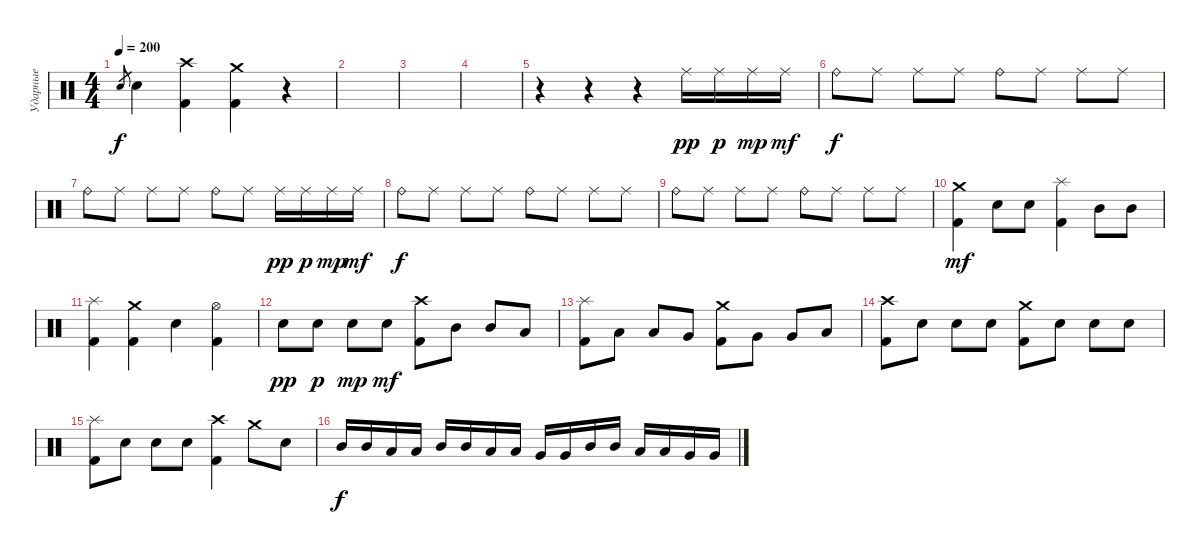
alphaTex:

\track ("Ударные" "Ударные") {instrument percussion}
\staff {score}
\articulation defaults
\ts (4 4)
\tempo 200
\clef neutral
\ks c "Electric Snare (hit)".8{gr dy f} "Electric Snare (hit)".4
("Crash high (hit)" "Kick (hit) 2").4 ("Crash medium (hit)" "Kick (hit) 2").4 r.4 |
|
|
|
r.4 r.4 r.4 "Ride (middle)".16{dy pp} "Ride (middle)".16{dy p} "Ride (middle)".16{dy mp} "Ride (middle)".16{dy mf} |
"Ride (bell)".8{dy f} "Ride (middle)".8 "Ride (middle)".8 "Ride (middle)".8 "Ride (bell)".8 "Ride (middle)".8 "Ride (middle)".8 "Ride (middle)".8 |
"Ride (bell)".8 "Ride (middle)".8 "Ride (middle)".8 "Ride (middle)".8 "Ride (bell)".8 "Ride (middle)".8 "Ride (middle)".16{dy pp} "Ride (middle)".16{dy p} "Ride (middle)".16{dy mp} "Ride (middle)".16{dy mf} |
"Ride (bell)".8{dy f} "Ride (middle)".8 "Ride (middle)".8 "Ride (middle)".8 "Ride (bell)".8 "Ride (middle)".8 "Ride (middle)".8 "Ride (middle)".8 |
"Ride (bell)".8 "Ride (middle)".8 "Ride (middle)".8 "Ride (middle)".8 "Ride (bell)".8 "Ride (middle)".8 "Ride (middle)".8 "Ride (middle)".8 |
("Crash medium (hit)" "Kick (hit) 2").4{dy mf} "Electric Snare (hit)".8 "Electric Snare (hit)".8 ("Splash (hit)" "Kick (hit) 2").4 "Mid Tom (hit)".8 "Mid Tom (hit)".8 |
("Splash (hit)" "Kick (hit) 2").4 ("Crash medium (hit)" "Kick (hit) 2").4 "Electric Snare (hit)".4 ("Hi-Hat (open)" "Kick (hit) 2").4 |
"Electric Snare (hit)".8{dy pp} "Electric Snare (hit)".8{dy p} "Electric Snare (hit)".8{dy mp} "Electric Snare (hit)".8{dy mf} ("Crash high (hit)" "Kick (hit) 2").8 "Mid Tom (hit)".8 "Mid Tom (hit)".8 "Low Tom (hit)".8 |
("Splash (hit)" "Kick (hit) 2").8 "Low Tom (hit)".8 "Low Tom (hit)".8 "Very Low Tom (hit)".8 ("Crash medium (hit)" "Kick (hit) 2").8 "Very Low Tom (hit)".8 "Very Low Tom (hit)".8 "Low Floor Tom (hit)".8 |
("Crash high (hit)" "Kick (hit) 2").8 "Electric Snare (hit)".8 "Electric Snare (hit)".8 "Electric Snare (hit)".8 ("Crash medium (hit)" "Kick (hit) 2").8 "Electric Snare (hit)".8 "Electric Snare (hit)".8 "Electric Snare (hit)".8 |
("Splash (hit)" "Kick (hit) 2").8 "Electric Snare (hit)".8 "Electric Snare (hit)".8 "Electric Snare (hit)".8 ("Crash high (hit)" "Kick (hit) 2").4 "Crash medium (hit)".8 "Electric Snare (hit)".8 |
"Mid Tom (hit)".16{dy f} "Mid Tom (hit)".16 "Low Tom (hit)".16 "Low Tom (hit)".16 "Mid Tom (hit)".16 "Mid Tom (hit)".16 "Low Tom (hit)".16 "Low Tom (hit)".16 "Very Low Tom (hit)".16 "Very Low Tom (hit)".16 "Mid Tom (hit)".16 "Mid Tom (hit)".16 "Low Tom (hit)".16 "Low Tom (hit)".16 "Very Low Tom (hit)".16 "Very Low Tom (hit)".16
